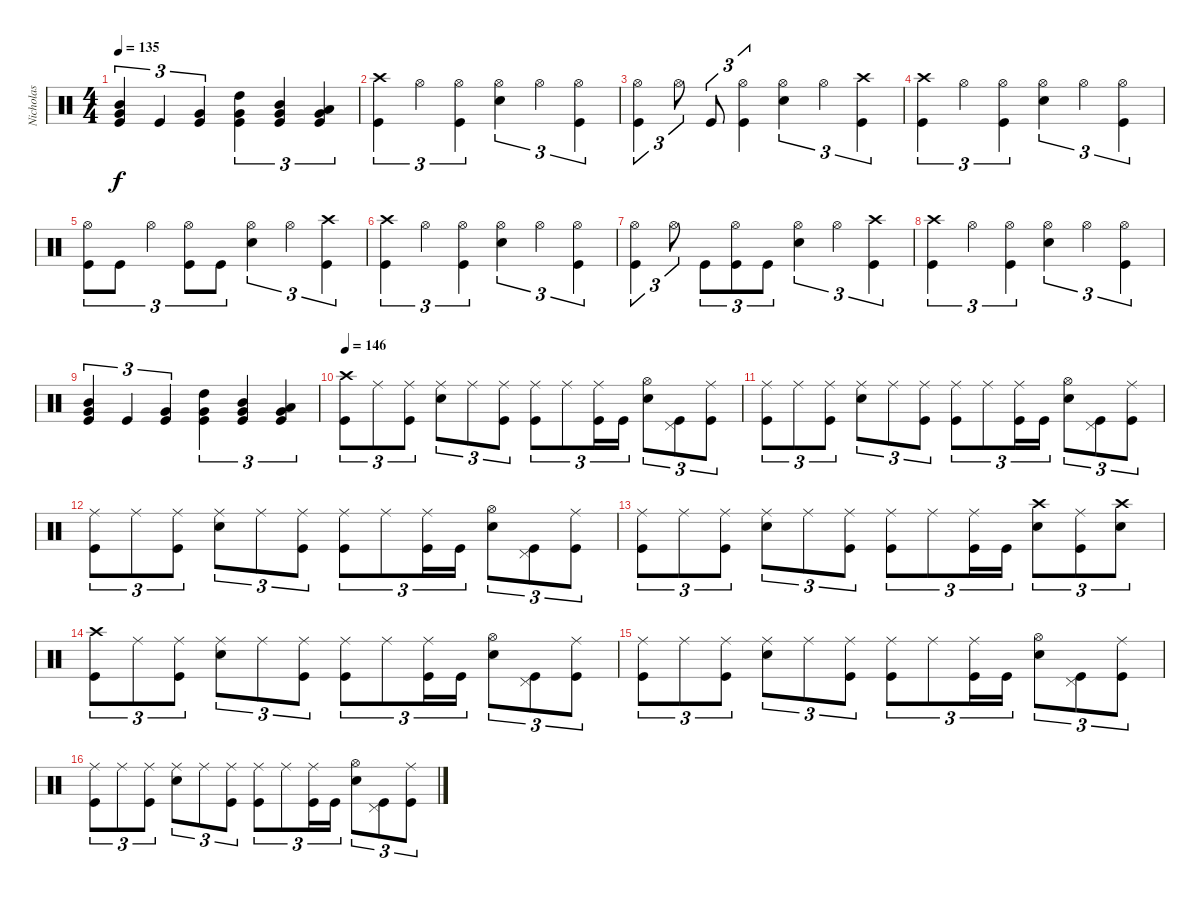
\track ("Nicholas" "Nicholas") {instrument percussion}
\staff {score}
\articulation defaults
\ts (4 4)
\tempo 135
\clef neutral
\ks c
("Mid Tom (hit)" "Very Low Tom (hit)" "Kick (hit)").4{tu (3 2) dy f} "Kick (hit)".4{tu (3 2)} ("Very Low Tom (hit)" "Kick (hit)").4{tu (3 2)} ("High Tom (hit)" "Very Low Tom (hit)" "Kick (hit)").4{tu (3 2)} ("Mid Tom (hit)" "Very Low Tom (hit)" "Kick (hit)").4{tu (3 2)} ("Low Tom (hit)" "Very Low Tom (hit)" "Kick (hit)").4{tu (3 2)} |
("Crash high (hit)" "Kick (hit)").4{tu (3 2)} "Hi-Hat (open)".4{tu (3 2)} ("Hi-Hat (open)" "Kick (hit)").4{tu (3 2)} ("Hi-Hat (open)" "Electric Snare (hit)").4{tu (3 2)} "Hi-Hat (open)".4{tu (3 2)} ("Hi-Hat (open)" "Kick (hit)").4{tu (3 2)} |
("Hi-Hat (open)" "Kick (hit)").4{tu (3 2)} "Hi-Hat (open)".8{tu (3 2)} "Kick (hit)".8{tu (3 2)} ("Hi-Hat (open)" "Kick (hit)").4{tu (3 2)} ("Hi-Hat (open)" "Electric Snare (hit)").4{tu (3 2)} "Hi-Hat (open)".4{tu (3 2)} ("Crash high (hit)" "Kick (hit)").4{tu (3 2)} |
("Crash high (hit)" "Kick (hit)").4{tu (3 2)} "Hi-Hat (open)".4{tu (3 2)} ("Hi-Hat (open)" "Kick (hit)").4{tu (3 2)} ("Hi-Hat (open)" "Electric Snare (hit)").4{tu (3 2)} "Hi-Hat (open)".4{tu (3 2)} ("Hi-Hat (open)" "Kick (hit)").4{tu (3 2)} |
("Hi-Hat (open)" "Kick (hit)").8{tu (3 2)} "Kick (hit)".8{tu (3 2)} "Hi-Hat (open)".4{tu (3 2)} ("Hi-Hat (open)" "Kick (hit)").8{tu (3 2)} "Kick (hit)".8{tu (3 2)} ("Hi-Hat (open)" "Electric Snare (hit)").4{tu (3 2)} "Hi-Hat (open)".4{tu (3 2)} ("Crash high (hit)" "Kick (hit)").4{tu (3 2)} |
("Crash high (hit)" "Kick (hit)").4{tu (3 2)} "Hi-Hat (open)".4{tu (3 2)} ("Hi-Hat (open)" "Kick (hit)").4{tu (3 2)} ("Hi-Hat (open)" "Electric Snare (hit)").4{tu (3 2)} "Hi-Hat (open)".4{tu (3 2)} ("Hi-Hat (open)" "Kick (hit)").4{tu (3 2)} |
("Hi-Hat (open)" "Kick (hit)").4{tu (3 2)} "Hi-Hat (open)".8{tu (3 2)} "Kick (hit)".8{tu (3 2)} ("Hi-Hat (open)" "Kick (hit)").8{tu (3 2)} "Kick (hit)".8{tu (3 2)} ("Hi-Hat (open)" "Electric Snare (hit)").4{tu (3 2)} "Hi-Hat (open)".4{tu (3 2)} ("Crash high (hit)" "Kick (hit)").4{tu (3 2)} |
("Crash high (hit)" "Kick (hit)").4{tu (3 2)} "Hi-Hat (open)".4{tu (3 2)} ("Hi-Hat (open)" "Kick (hit)").4{tu (3 2)} ("Hi-Hat (open)" "Electric Snare (hit)").4{tu (3 2)} "Hi-Hat (open)".4{tu (3 2)} ("Hi-Hat (open)" "Kick (hit)").4{tu (3 2)} |
("Mid Tom (hit)" "Very Low Tom (hit)" "Kick (hit)").4{tu (3 2)} "Kick (hit)".4{tu (3 2)} ("Very Low Tom (hit)" "Kick (hit)").4{tu (3 2)} ("High Tom (hit)" "Very Low Tom (hit)" "Kick (hit)").4{tu (3 2)} ("Mid Tom (hit)" "Very Low Tom (hit)" "Kick (hit)").4{tu (3 2)} ("Low Tom (hit)" "Very Low Tom (hit)" "Kick (hit)").4{tu (3 2)} |
\tempo 146
("Crash high (hit)" "Kick (hit)").8{tu (3 2)} "Ride (middle)".8{tu (3 2)} ("Ride (middle)" "Kick (hit)").8{tu (3 2)} ("Ride (middle)" "Electric Snare (hit)").8{tu (3 2)} "Ride (middle)".8{tu (3 2)} ("Ride (middle)" "Kick (hit)").8{tu (3 2)} ("Ride (middle)" "Kick (hit)").8{tu (3 2)} "Ride (middle)".8{tu (3 2)} ("Ride (middle)" "Kick (hit)").16{tu (3 2)} "Kick (hit)".16{tu (3 2)} ("Hi-Hat (open)" "Electric Snare (hit)").8{tu (3 2)} ("Pedal Hi-Hat (hit)" "Kick (hit)").8{tu (3 2)} ("Ride (middle)" "Kick (hit)").8{tu (3 2)} |
("Ride (middle)" "Kick (hit)").8{tu (3 2)} "Ride (middle)".8{tu (3 2)} ("Ride (middle)" "Kick (hit)").8{tu (3 2)} ("Ride (middle)" "Electric Snare (hit)").8{tu (3 2)} "Ride (middle)".8{tu (3 2)} ("Ride (middle)" "Kick (hit)").8{tu (3 2)} ("Ride (middle)" "Kick (hit)").8{tu (3 2)} "Ride (middle)".8{tu (3 2)} ("Ride (middle)" "Kick (hit)").16{tu (3 2)} "Kick (hit)".16{tu (3 2)} ("Hi-Hat (open)" "Electric Snare (hit)").8{tu (3 2)} ("Pedal Hi-Hat (hit)" "Kick (hit)").8{tu (3 2)} ("Ride (middle)" "Kick (hit)").8{tu (3 2)} |
("Ride (middle)" "Kick (hit)").8{tu (3 2)} "Ride (middle)".8{tu (3 2)} ("Ride (middle)" "Kick (hit)").8{tu (3 2)} ("Ride (middle)" "Electric Snare (hit)").8{tu (3 2)} "Ride (middle)".8{tu (3 2)} ("Ride (middle)" "Kick (hit)").8{tu (3 2)} ("Ride (middle)" "Kick (hit)").8{tu (3 2)} "Ride (middle)".8{tu (3 2)} ("Ride (middle)" "Kick (hit)").16{tu (3 2)} "Kick (hit)".16{tu (3 2)} ("Hi-Hat (open)" "Electric Snare (hit)").8{tu (3 2)} ("Pedal Hi-Hat (hit)" "Kick (hit)").8{tu (3 2)} ("Ride (middle)" "Kick (hit)").8{tu (3 2)} |
("Ride (middle)" "Kick (hit)").8{tu (3 2)} "Ride (middle)".8{tu (3 2)} ("Ride (middle)" "Kick (hit)").8{tu (3 2)} ("Ride (middle)" "Electric Snare (hit)").8{tu (3 2)} "Ride (middle)".8{tu (3 2)} ("Ride (middle)" "Kick (hit)").8{tu (3 2)} ("Ride (middle)" "Kick (hit)").8{tu (3 2)} "Ride (middle)".8{tu (3 2)} ("Ride (middle)" "Kick (hit)").16{tu (3 2)} "Kick (hit)".16{tu (3 2)} ("Crash high (hit)" "Electric Snare (hit)").8{tu (3 2)} ("Ride (middle)" "Kick (hit)").8{tu (3 2)} ("Crash high (hit)" "Electric Snare (hit)").8{tu (3 2)} |
("Crash high (hit)" "Kick (hit)").8{tu (3 2)} "Ride (middle)".8{tu (3 2)} ("Ride (middle)" "Kick (hit)").8{tu (3 2)} ("Ride (middle)" "Electric Snare (hit)").8{tu (3 2)} "Ride (middle)".8{tu (3 2)} ("Ride (middle)" "Kick (hit)").8{tu (3 2)} ("Ride (middle)" "Kick (hit)").8{tu (3 2)} "Ride (middle)".8{tu (3 2)} ("Ride (middle)" "Kick (hit)").16{tu (3 2)} "Kick (hit)".16{tu (3 2)} ("Hi-Hat (open)" "Electric Snare (hit)").8{tu (3 2)} ("Pedal Hi-Hat (hit)" "Kick (hit)").8{tu (3 2)} ("Ride (middle)" "Kick (hit)").8{tu (3 2)} |
("Ride (middle)" "Kick (hit)").8{tu (3 2)} "Ride (middle)".8{tu (3 2)} ("Ride (middle)" "Kick (hit)").8{tu (3 2)} ("Ride (middle)" "Electric Snare (hit)").8{tu (3 2)} "Ride (middle)".8{tu (3 2)} ("Ride (middle)" "Kick (hit)").8{tu (3 2)} ("Ride (middle)" "Kick (hit)").8{tu (3 2)} "Ride (middle)".8{tu (3 2)} ("Ride (middle)" "Kick (hit)").16{tu (3 2)} "Kick (hit)".16{tu (3 2)} ("Hi-Hat (open)" "Electric Snare (hit)").8{tu (3 2)} ("Pedal Hi-Hat (hit)" "Kick (hit)").8{tu (3 2)} ("Ride (middle)" "Kick (hit)").8{tu (3 2)} |
("Ride (middle)" "Kick (hit)").8{tu (3 2)} "Ride (middle)".8{tu (3 2)} ("Ride (middle)" "Kick (hit)").8{tu (3 2)} ("Ride (middle)" "Electric Snare (hit)").8{tu (3 2)} "Ride (middle)".8{tu (3 2)} ("Ride (middle)" "Kick (hit)").8{tu (3 2)} ("Ride (middle)" "Kick (hit)").8{tu (3 2)} "Ride (middle)".8{tu (3 2)} ("Ride (middle)" "Kick (hit)").16{tu (3 2)} "Kick (hit)".16{tu (3 2)} ("Hi-Hat (open)" "Electric Snare (hit)").8{tu (3 2)} ("Pedal Hi-Hat (hit)" "Kick (hit)").8{tu (3 2)} ("Ride (middle)" "Kick (hit)").8{tu (3 2)}
